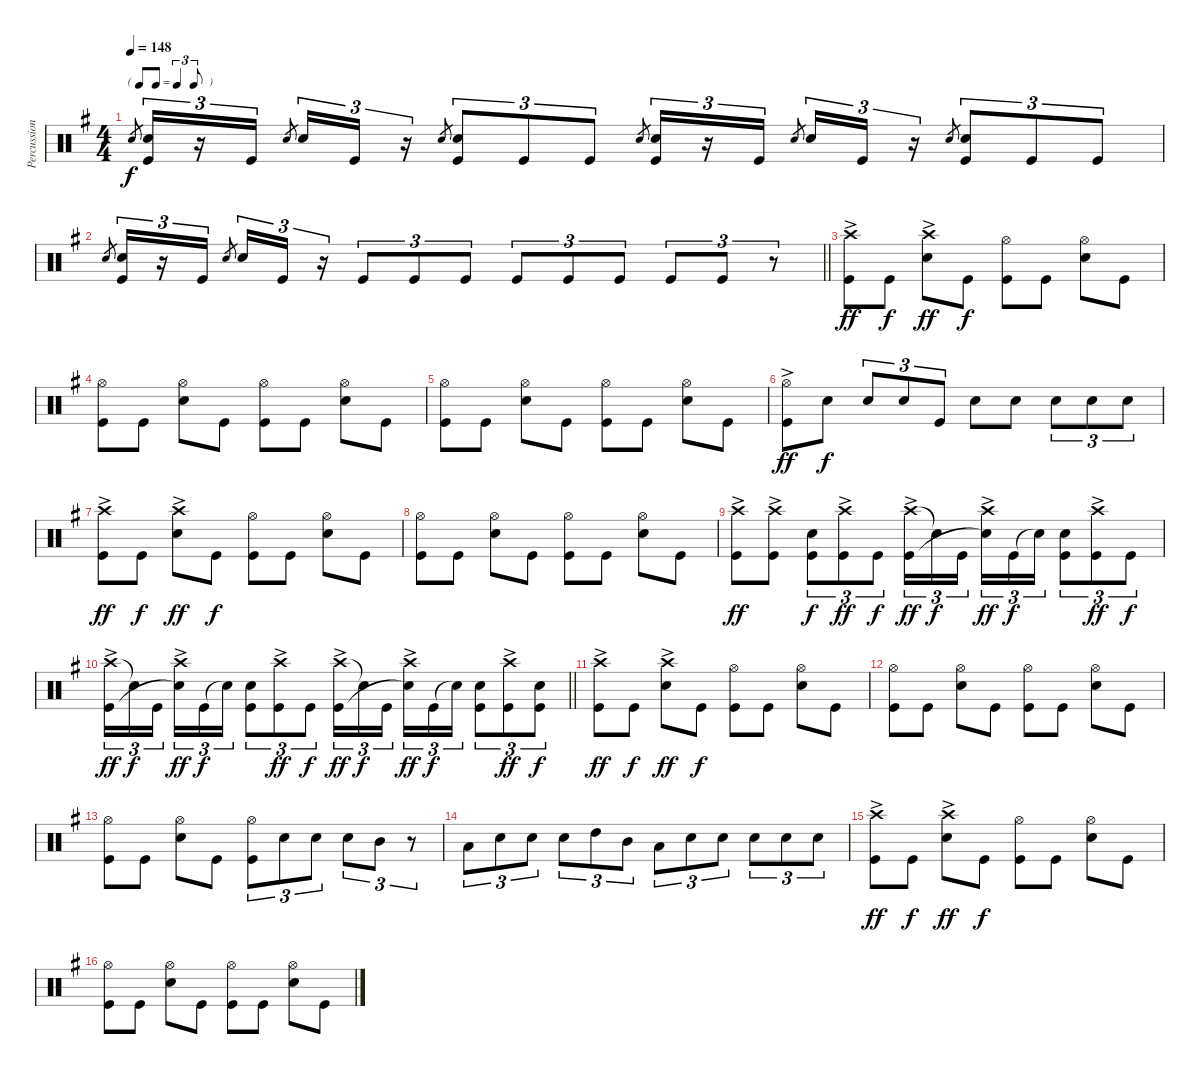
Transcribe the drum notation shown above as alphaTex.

\track ("Percussion" "Percussion") {instrument percussion}
\staff {score}
\articulation defaults
\ts (4 4)
\tf triplet8th
\tempo 148
\clef neutral
\ks g "Snare (hit) 2".8{gr dy f}
("Snare (hit) 2" "Kick (hit)").16{tu (3 2)} r.16{tu (3 2)} "Kick (hit)".16{tu (3 2)} "Snare (hit) 2".8{gr beam splitsecondary} "Snare (hit) 2".16{tu (3 2)} "Kick (hit)".16{tu (3 2)} r.16{tu (3 2)} "Snare (hit) 2".8{gr} ("Snare (hit) 2" "Kick (hit)").8{tu (3 2)} "Kick (hit)".8{tu (3 2)} "Kick (hit)".8{tu (3 2)} "Snare (hit) 2".8{gr} ("Snare (hit) 2" "Kick (hit)").16{tu (3 2)} r.16{tu (3 2)} "Kick (hit)".16{tu (3 2)} "Snare (hit) 2".8{gr beam splitsecondary} "Snare (hit) 2".16{tu (3 2)} "Kick (hit)".16{tu (3 2)} r.16{tu (3 2)} "Snare (hit) 2".8{gr} ("Snare (hit) 2" "Kick (hit)").8{tu (3 2)} "Kick (hit)".8{tu (3 2)} "Kick (hit)".8{tu (3 2)} |
\barLineRight lightlight "Snare (hit) 2".8{gr}
("Snare (hit) 2" "Kick (hit)").16{tu (3 2)} r.16{tu (3 2)} "Kick (hit)".16{tu (3 2)} "Snare (hit) 2".8{gr beam splitsecondary} "Snare (hit) 2".16{tu (3 2)} "Kick (hit)".16{tu (3 2)} r.16{tu (3 2)} "Kick (hit)".8{tu (3 2)} "Kick (hit)".8{tu (3 2)} "Kick (hit)".8{tu (3 2)} "Kick (hit)".8{tu (3 2)} "Kick (hit)".8{tu (3 2)} "Kick (hit)".8{tu (3 2)} "Kick (hit)".8{tu (3 2)} "Kick (hit)".8{tu (3 2)} r.8{tu (3 2)} |
("Crash high (hit)"{ac} "Kick (hit)").8{dy ff} "Kick (hit)".8{dy f} ("Crash high (hit)"{ac} "Snare (hit) 2").8{dy ff} "Kick (hit)".8{dy f} ("Hi-Hat (open)" "Kick (hit)").8 "Kick (hit)".8 ("Hi-Hat (open)" "Snare (hit) 2").8 "Kick (hit)".8 |
("Hi-Hat (open)" "Kick (hit)").8 "Kick (hit)".8 ("Hi-Hat (open)" "Snare (hit) 2").8 "Kick (hit)".8 ("Hi-Hat (open)" "Kick (hit)").8 "Kick (hit)".8 ("Hi-Hat (open)" "Snare (hit) 2").8 "Kick (hit)".8 |
("Hi-Hat (open)" "Kick (hit)").8 "Kick (hit)".8 ("Hi-Hat (open)" "Snare (hit) 2").8 "Kick (hit)".8 ("Hi-Hat (open)" "Kick (hit)").8 "Kick (hit)".8 ("Hi-Hat (open)" "Snare (hit) 2").8 "Kick (hit)".8 |
("Hi-Hat (open)"{ac} "Kick (hit)").8{dy ff} "Snare (hit) 2".8{dy f} "Snare (hit) 2".8{tu (3 2)} "Snare (hit) 2".8{tu (3 2)} "Kick (hit)".8{tu (3 2)} "Snare (hit) 2".8 "Snare (hit) 2".8 "Snare (hit) 2".8{tu (3 2)} "Snare (hit) 2".8{tu (3 2)} "Snare (hit) 2".8{tu (3 2)} |
("Crash high (hit)"{ac} "Kick (hit)").8{dy ff} "Kick (hit)".8{dy f} ("Crash high (hit)"{ac} "Snare (hit) 2").8{dy ff} "Kick (hit)".8{dy f} ("Hi-Hat (open)" "Kick (hit)").8 "Kick (hit)".8 ("Hi-Hat (open)" "Snare (hit) 2").8 "Kick (hit)".8 |
("Hi-Hat (open)" "Kick (hit)").8 "Kick (hit)".8 ("Hi-Hat (open)" "Snare (hit) 2").8 "Kick (hit)".8 ("Hi-Hat (open)" "Kick (hit)").8 "Kick (hit)".8 ("Hi-Hat (open)" "Snare (hit) 2").8 "Kick (hit)".8 |
("Crash high (hit)"{ac} "Kick (hit)").8{dy ff} ("Crash high (hit)"{ac} "Kick (hit)").8 ("Snare (hit) 2" "Kick (hit)").8{tu (3 2) dy f} ("Crash high (hit)"{ac} "Kick (hit)").8{tu (3 2) dy ff} "Kick (hit)".8{tu (3 2) dy f} ("Crash high (hit)"{ac} "Kick (hit)").16{tu (3 2) dy ff} "Snare (hit)"{t}.16{tu (3 2) dy f} "Kick (hit)".16{tu (3 2) beam splitsecondary} ("Crash high (hit)"{ac} "Snare (hit)"{t}).16{tu (3 2) dy ff} "Kick (hit)".16{tu (3 2) dy f} "Snare (hit)"{t}.16{tu (3 2)} ("Snare (hit) 2" "Kick (hit)").8{tu (3 2)} ("Crash high (hit)"{ac} "Kick (hit)").8{tu (3 2) dy ff} "Kick (hit)".8{tu (3 2) dy f} |
\barLineRight lightlight
("Crash high (hit)"{ac} "Kick (hit)").16{tu (3 2) dy ff} "Snare (hit)"{t}.16{tu (3 2) dy f} "Kick (hit)".16{tu (3 2) beam splitsecondary} ("Crash high (hit)"{ac} "Snare (hit)"{t}).16{tu (3 2) dy ff} "Kick (hit)".16{tu (3 2) dy f} "Snare (hit)"{t}.16{tu (3 2)} ("Snare (hit) 2" "Kick (hit)").8{tu (3 2)} ("Crash high (hit)"{ac} "Kick (hit)").8{tu (3 2) dy ff} "Kick (hit)".8{tu (3 2) dy f} ("Crash high (hit)"{ac} "Kick (hit)").16{tu (3 2) dy ff} "Snare (hit)"{t}.16{tu (3 2) dy f} "Kick (hit)".16{tu (3 2) beam splitsecondary} ("Crash high (hit)"{ac} "Snare (hit)"{t}).16{tu (3 2) dy ff} "Kick (hit)".16{tu (3 2) dy f} "Snare (hit)"{t}.16{tu (3 2)} ("Snare (hit) 2" "Kick (hit)").8{tu (3 2)} ("Crash high (hit)"{ac} "Kick (hit)").8{tu (3 2) dy ff} ("Snare (hit) 2" "Kick (hit)").8{tu (3 2) dy f} |
("Crash high (hit)"{ac} "Kick (hit)").8{dy ff} "Kick (hit)".8{dy f} ("Crash high (hit)"{ac} "Snare (hit) 2").8{dy ff} "Kick (hit)".8{dy f} ("Hi-Hat (open)" "Kick (hit)").8 "Kick (hit)".8 ("Hi-Hat (open)" "Snare (hit) 2").8 "Kick (hit)".8 |
("Hi-Hat (open)" "Kick (hit)").8 "Kick (hit)".8 ("Hi-Hat (open)" "Snare (hit) 2").8 "Kick (hit)".8 ("Hi-Hat (open)" "Kick (hit)").8 "Kick (hit)".8 ("Hi-Hat (open)" "Snare (hit) 2").8 "Kick (hit)".8 |
("Hi-Hat (open)" "Kick (hit)").8 "Kick (hit)".8 ("Hi-Hat (open)" "Snare (hit) 2").8 "Kick (hit)".8 ("Hi-Hat (open)" "Kick (hit)").8{tu (3 2)} "Snare (hit) 2".8{tu (3 2)} "Snare (hit) 2".8{tu (3 2)} "Snare (hit) 2".8{tu (3 2)} "Mid Tom (hit)".8{tu (3 2)} r.8{tu (3 2)} |
"Low Tom (hit)".8{tu (3 2)} "Snare (hit) 2".8{tu (3 2)} "Snare (hit) 2".8{tu (3 2)} "Snare (hit) 2".8{tu (3 2)} "High Tom (hit)".8{tu (3 2)} "Mid Tom (hit)".8{tu (3 2)} "Low Tom (hit)".8{tu (3 2)} "Snare (hit) 2".8{tu (3 2)} "Snare (hit) 2".8{tu (3 2)} "Snare (hit) 2".8{tu (3 2)} "Snare (hit) 2".8{tu (3 2)} "Snare (hit) 2".8{tu (3 2)} |
("Crash high (hit)"{ac} "Kick (hit)").8{dy ff} "Kick (hit)".8{dy f} ("Crash high (hit)"{ac} "Snare (hit) 2").8{dy ff} "Kick (hit)".8{dy f} ("Hi-Hat (open)" "Kick (hit)").8 "Kick (hit)".8 ("Hi-Hat (open)" "Snare (hit) 2").8 "Kick (hit)".8 |
("Hi-Hat (open)" "Kick (hit)").8{volume 0} "Kick (hit)".8 ("Hi-Hat (open)" "Snare (hit) 2").8 "Kick (hit)".8 ("Hi-Hat (open)" "Kick (hit)").8 "Kick (hit)".8 ("Hi-Hat (open)" "Snare (hit) 2").8 "Kick (hit)".8
